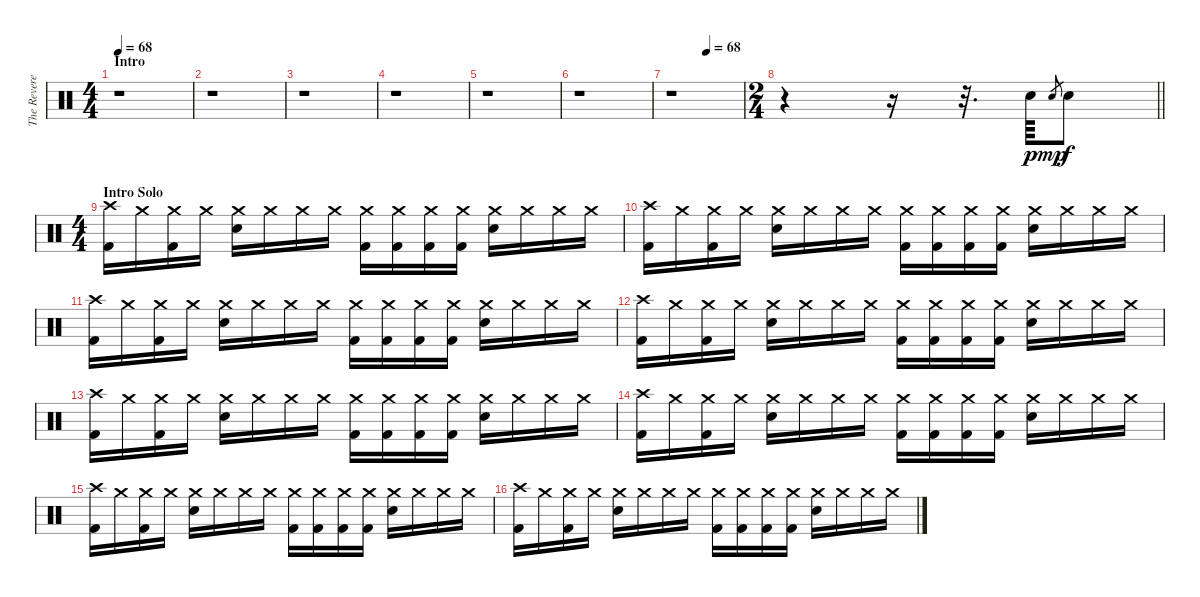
\track ("The Reverend" "The Revere") {instrument percussion}
\staff {score}
\articulation defaults
\ts (4 4)
\section ("" "Intro")
\tempo 68
\tempo 60
\tempo 68
\clef neutral
\ks c
r.1{dy p} |
r.1 |
r.1 |
r.1 |
r.1 |
r.1 |
\tempo (68 0.5)
r.1 |
\ts (2 4)
\barLineRight lightlight
r.4 r.16 r.32{d} "Electric Snare (hit)".64 "Electric Snare (hit)".8{gr dy mp} "Electric Snare (hit)".8{dy f} |
\ts (4 4)
\section ("" "Intro Solo")
("Crash high (hit)" "Kick (hit) 2").16 "Crash medium (hit)".16 ("Crash medium (hit)" "Kick (hit) 2").16 "Crash medium (hit)".16 ("Crash medium (hit)" "Electric Snare (hit)").16 "Crash medium (hit)".16 "Crash medium (hit)".16 "Crash medium (hit)".16 ("Crash medium (hit)" "Kick (hit) 2").16 ("Crash medium (hit)" "Kick (hit) 2").16 ("Crash medium (hit)" "Kick (hit) 2").16 ("Crash medium (hit)" "Kick (hit) 2").16 ("Crash medium (hit)" "Electric Snare (hit)").16 "Crash medium (hit)".16 "Crash medium (hit)".16 "Crash medium (hit)".16 |
("Crash high (hit)" "Kick (hit) 2").16 "Crash medium (hit)".16 ("Crash medium (hit)" "Kick (hit) 2").16 "Crash medium (hit)".16 ("Crash medium (hit)" "Electric Snare (hit)").16 "Crash medium (hit)".16 "Crash medium (hit)".16 "Crash medium (hit)".16 ("Crash medium (hit)" "Kick (hit) 2").16 ("Crash medium (hit)" "Kick (hit) 2").16 ("Crash medium (hit)" "Kick (hit) 2").16 ("Crash medium (hit)" "Kick (hit) 2").16 ("Crash medium (hit)" "Electric Snare (hit)").16 "Crash medium (hit)".16 "Crash medium (hit)".16 "Crash medium (hit)".16 |
("Crash high (hit)" "Kick (hit) 2").16 "Crash medium (hit)".16 ("Crash medium (hit)" "Kick (hit) 2").16 "Crash medium (hit)".16 ("Crash medium (hit)" "Electric Snare (hit)").16 "Crash medium (hit)".16 "Crash medium (hit)".16 "Crash medium (hit)".16 ("Crash medium (hit)" "Kick (hit) 2").16 ("Crash medium (hit)" "Kick (hit) 2").16 ("Crash medium (hit)" "Kick (hit) 2").16 ("Crash medium (hit)" "Kick (hit) 2").16 ("Crash medium (hit)" "Electric Snare (hit)").16 "Crash medium (hit)".16 "Crash medium (hit)".16 "Crash medium (hit)".16 |
("Crash high (hit)" "Kick (hit) 2").16 "Crash medium (hit)".16 ("Crash medium (hit)" "Kick (hit) 2").16 "Crash medium (hit)".16 ("Crash medium (hit)" "Electric Snare (hit)").16 "Crash medium (hit)".16 "Crash medium (hit)".16 "Crash medium (hit)".16 ("Crash medium (hit)" "Kick (hit) 2").16 ("Crash medium (hit)" "Kick (hit) 2").16 ("Crash medium (hit)" "Kick (hit) 2").16 ("Crash medium (hit)" "Kick (hit) 2").16 ("Crash medium (hit)" "Electric Snare (hit)").16 "Crash medium (hit)".16 "Crash medium (hit)".16 "Crash medium (hit)".16 |
("Crash high (hit)" "Kick (hit) 2").16 "Crash medium (hit)".16 ("Crash medium (hit)" "Kick (hit) 2").16 "Crash medium (hit)".16 ("Crash medium (hit)" "Electric Snare (hit)").16 "Crash medium (hit)".16 "Crash medium (hit)".16 "Crash medium (hit)".16 ("Crash medium (hit)" "Kick (hit) 2").16 ("Crash medium (hit)" "Kick (hit) 2").16 ("Crash medium (hit)" "Kick (hit) 2").16 ("Crash medium (hit)" "Kick (hit) 2").16 ("Crash medium (hit)" "Electric Snare (hit)").16 "Crash medium (hit)".16 "Crash medium (hit)".16 "Crash medium (hit)".16 |
("Crash high (hit)" "Kick (hit) 2").16 "Crash medium (hit)".16 ("Crash medium (hit)" "Kick (hit) 2").16 "Crash medium (hit)".16 ("Crash medium (hit)" "Electric Snare (hit)").16 "Crash medium (hit)".16 "Crash medium (hit)".16 "Crash medium (hit)".16 ("Crash medium (hit)" "Kick (hit) 2").16 ("Crash medium (hit)" "Kick (hit) 2").16 ("Crash medium (hit)" "Kick (hit) 2").16 ("Crash medium (hit)" "Kick (hit) 2").16 ("Crash medium (hit)" "Electric Snare (hit)").16 "Crash medium (hit)".16 "Crash medium (hit)".16 "Crash medium (hit)".16 |
("Crash high (hit)" "Kick (hit) 2").16 "Crash medium (hit)".16 ("Crash medium (hit)" "Kick (hit) 2").16 "Crash medium (hit)".16 ("Crash medium (hit)" "Electric Snare (hit)").16 "Crash medium (hit)".16 "Crash medium (hit)".16 "Crash medium (hit)".16 ("Crash medium (hit)" "Kick (hit) 2").16 ("Crash medium (hit)" "Kick (hit) 2").16 ("Crash medium (hit)" "Kick (hit) 2").16 ("Crash medium (hit)" "Kick (hit) 2").16 ("Crash medium (hit)" "Electric Snare (hit)").16 "Crash medium (hit)".16 "Crash medium (hit)".16 "Crash medium (hit)".16 |
("Crash high (hit)" "Kick (hit) 2").16 "Crash medium (hit)".16 ("Crash medium (hit)" "Kick (hit) 2").16 "Crash medium (hit)".16 ("Crash medium (hit)" "Electric Snare (hit)").16 "Crash medium (hit)".16 "Crash medium (hit)".16 "Crash medium (hit)".16 ("Crash medium (hit)" "Kick (hit) 2").16 ("Crash medium (hit)" "Kick (hit) 2").16 ("Crash medium (hit)" "Kick (hit) 2").16 ("Crash medium (hit)" "Kick (hit) 2").16 ("Crash medium (hit)" "Electric Snare (hit)").16 "Crash medium (hit)".16 "Crash medium (hit)".16 "Crash medium (hit)".16
